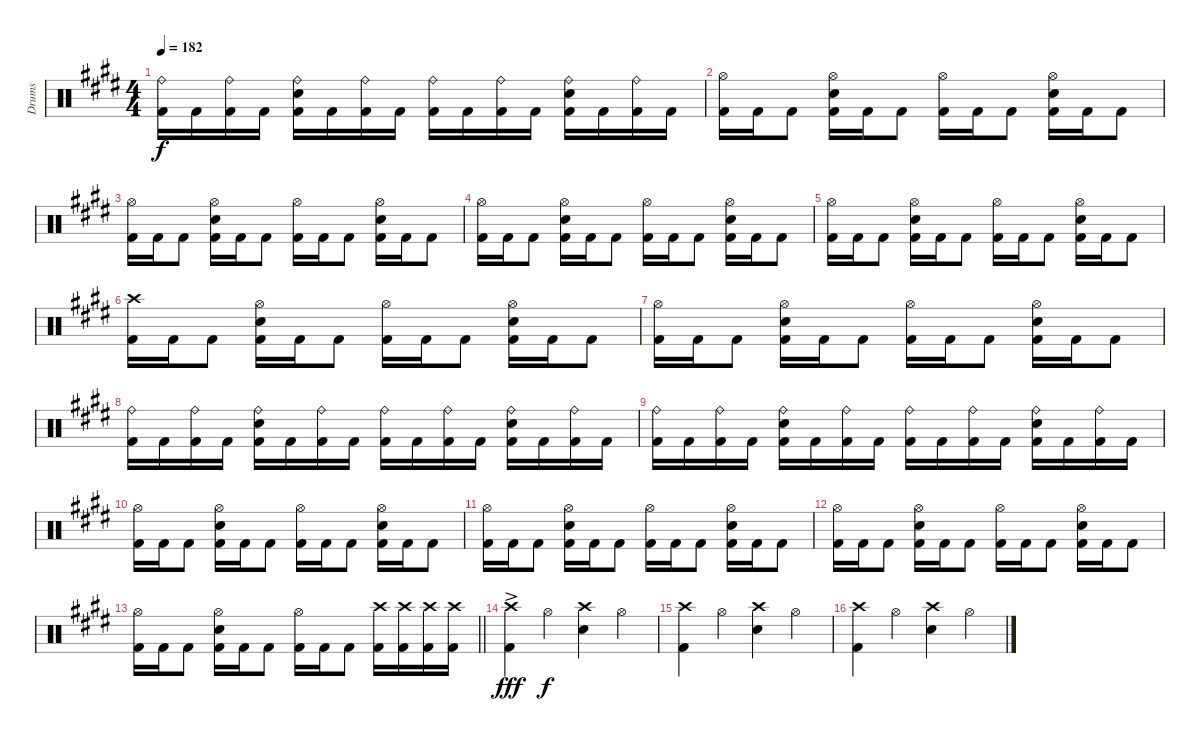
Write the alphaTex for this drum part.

\track ("Drums" "Drums") {instrument percussion}
\staff {score}
\articulation defaults
\ts (4 4)
\tempo 182
\clef neutral
\ks c#minor
("Ride (bell)" "Kick (hit) 2").16{dy f} "Kick (hit) 2".16 ("Ride (bell)" "Kick (hit) 2").16 "Kick (hit) 2".16 ("Ride (bell)" "Snare (hit) 2" "Kick (hit) 2").16 "Kick (hit) 2".16 ("Ride (bell)" "Kick (hit) 2").16 "Kick (hit) 2".16 ("Ride (bell)" "Kick (hit) 2").16 "Kick (hit) 2".16 ("Ride (bell)" "Kick (hit) 2").16 "Kick (hit) 2".16 ("Ride (bell)" "Snare (hit) 2" "Kick (hit) 2").16 "Kick (hit) 2".16 ("Ride (bell)" "Kick (hit) 2").16 "Kick (hit) 2".16 |
("Hi-Hat (open)" "Kick (hit) 2").16 "Kick (hit) 2".16 "Kick (hit) 2".8 ("Hi-Hat (open)" "Snare (hit) 2" "Kick (hit) 2").16 "Kick (hit) 2".16 "Kick (hit) 2".8 ("Hi-Hat (open)" "Kick (hit) 2").16 "Kick (hit) 2".16 "Kick (hit) 2".8 ("Hi-Hat (open)" "Snare (hit) 2" "Kick (hit) 2").16 "Kick (hit) 2".16 "Kick (hit) 2".8 |
("Hi-Hat (open)" "Kick (hit) 2").16 "Kick (hit) 2".16 "Kick (hit) 2".8 ("Hi-Hat (open)" "Snare (hit) 2" "Kick (hit) 2").16 "Kick (hit) 2".16 "Kick (hit) 2".8 ("Hi-Hat (open)" "Kick (hit) 2").16 "Kick (hit) 2".16 "Kick (hit) 2".8 ("Hi-Hat (open)" "Snare (hit) 2" "Kick (hit) 2").16 "Kick (hit) 2".16 "Kick (hit) 2".8 |
("Hi-Hat (open)" "Kick (hit) 2").16 "Kick (hit) 2".16 "Kick (hit) 2".8 ("Hi-Hat (open)" "Snare (hit) 2" "Kick (hit) 2").16 "Kick (hit) 2".16 "Kick (hit) 2".8 ("Hi-Hat (open)" "Kick (hit) 2").16 "Kick (hit) 2".16 "Kick (hit) 2".8 ("Hi-Hat (open)" "Snare (hit) 2" "Kick (hit) 2").16 "Kick (hit) 2".16 "Kick (hit) 2".8 |
("Hi-Hat (open)" "Kick (hit) 2").16 "Kick (hit) 2".16 "Kick (hit) 2".8 ("Hi-Hat (open)" "Snare (hit) 2" "Kick (hit) 2").16 "Kick (hit) 2".16 "Kick (hit) 2".8 ("Hi-Hat (open)" "Kick (hit) 2").16 "Kick (hit) 2".16 "Kick (hit) 2".8 ("Hi-Hat (open)" "Snare (hit) 2" "Kick (hit) 2").16 "Kick (hit) 2".16 "Kick (hit) 2".8 |
("Crash high (hit)" "Kick (hit) 2").16 "Kick (hit) 2".16 "Kick (hit) 2".8 ("Hi-Hat (open)" "Snare (hit) 2" "Kick (hit) 2").16 "Kick (hit) 2".16 "Kick (hit) 2".8 ("Hi-Hat (open)" "Kick (hit) 2").16 "Kick (hit) 2".16 "Kick (hit) 2".8 ("Hi-Hat (open)" "Snare (hit) 2" "Kick (hit) 2").16 "Kick (hit) 2".16 "Kick (hit) 2".8 |
("Hi-Hat (open)" "Kick (hit) 2").16 "Kick (hit) 2".16 "Kick (hit) 2".8 ("Hi-Hat (open)" "Snare (hit) 2" "Kick (hit) 2").16 "Kick (hit) 2".16 "Kick (hit) 2".8 ("Hi-Hat (open)" "Kick (hit) 2").16 "Kick (hit) 2".16 "Kick (hit) 2".8 ("Hi-Hat (open)" "Snare (hit) 2" "Kick (hit) 2").16 "Kick (hit) 2".16 "Kick (hit) 2".8 |
("Ride (bell)" "Kick (hit) 2").16 "Kick (hit) 2".16 ("Ride (bell)" "Kick (hit) 2").16 "Kick (hit) 2".16 ("Ride (bell)" "Snare (hit) 2" "Kick (hit) 2").16 "Kick (hit) 2".16 ("Ride (bell)" "Kick (hit) 2").16 "Kick (hit) 2".16 ("Ride (bell)" "Kick (hit) 2").16 "Kick (hit) 2".16 ("Ride (bell)" "Kick (hit) 2").16 "Kick (hit) 2".16 ("Ride (bell)" "Snare (hit) 2" "Kick (hit) 2").16 "Kick (hit) 2".16 ("Ride (bell)" "Kick (hit) 2").16 "Kick (hit) 2".16 |
("Ride (bell)" "Kick (hit) 2").16 "Kick (hit) 2".16 ("Ride (bell)" "Kick (hit) 2").16 "Kick (hit) 2".16 ("Ride (bell)" "Snare (hit) 2" "Kick (hit) 2").16 "Kick (hit) 2".16 ("Ride (bell)" "Kick (hit) 2").16 "Kick (hit) 2".16 ("Ride (bell)" "Kick (hit) 2").16 "Kick (hit) 2".16 ("Ride (bell)" "Kick (hit) 2").16 "Kick (hit) 2".16 ("Ride (bell)" "Snare (hit) 2" "Kick (hit) 2").16 "Kick (hit) 2".16 ("Ride (bell)" "Kick (hit) 2").16 "Kick (hit) 2".16 |
("Hi-Hat (open)" "Kick (hit) 2").16 "Kick (hit) 2".16 "Kick (hit) 2".8 ("Hi-Hat (open)" "Snare (hit) 2" "Kick (hit) 2").16 "Kick (hit) 2".16 "Kick (hit) 2".8 ("Hi-Hat (open)" "Kick (hit) 2").16 "Kick (hit) 2".16 "Kick (hit) 2".8 ("Hi-Hat (open)" "Snare (hit) 2" "Kick (hit) 2").16 "Kick (hit) 2".16 "Kick (hit) 2".8 |
("Hi-Hat (open)" "Kick (hit) 2").16 "Kick (hit) 2".16 "Kick (hit) 2".8 ("Hi-Hat (open)" "Snare (hit) 2" "Kick (hit) 2").16 "Kick (hit) 2".16 "Kick (hit) 2".8 ("Hi-Hat (open)" "Kick (hit) 2").16 "Kick (hit) 2".16 "Kick (hit) 2".8 ("Hi-Hat (open)" "Snare (hit) 2" "Kick (hit) 2").16 "Kick (hit) 2".16 "Kick (hit) 2".8 |
("Hi-Hat (open)" "Kick (hit) 2").16 "Kick (hit) 2".16 "Kick (hit) 2".8 ("Hi-Hat (open)" "Snare (hit) 2" "Kick (hit) 2").16 "Kick (hit) 2".16 "Kick (hit) 2".8 ("Hi-Hat (open)" "Kick (hit) 2").16 "Kick (hit) 2".16 "Kick (hit) 2".8 ("Hi-Hat (open)" "Snare (hit) 2" "Kick (hit) 2").16 "Kick (hit) 2".16 "Kick (hit) 2".8 |
\barLineRight lightlight
("Hi-Hat (open)" "Kick (hit) 2").16 "Kick (hit) 2".16 "Kick (hit) 2".8 ("Hi-Hat (open)" "Snare (hit) 2" "Kick (hit) 2").16 "Kick (hit) 2".16 "Kick (hit) 2".8 ("Hi-Hat (open)" "Kick (hit) 2").16 "Kick (hit) 2".16 "Kick (hit) 2".8 ("Crash high (hit)" "Kick (hit) 2").16 ("Crash high (hit)" "Kick (hit) 2").16 ("Crash high (hit)" "Kick (hit) 2").16 ("Crash high (hit)" "Kick (hit) 2").16 |
("Crash high (hit)" "Kick (hit) 2"{ac}).4{dy fff} "Hi-Hat (open)".4{dy f} ("Crash high (hit)" "Snare (hit) 2").4 "Hi-Hat (open)".4 |
("Crash high (hit)" "Kick (hit) 2").4 "Hi-Hat (open)".4 ("Crash high (hit)" "Snare (hit) 2").4 "Hi-Hat (open)".4 |
("Crash high (hit)" "Kick (hit) 2").4 "Hi-Hat (open)".4 ("Crash high (hit)" "Snare (hit) 2").4 "Hi-Hat (open)".4
